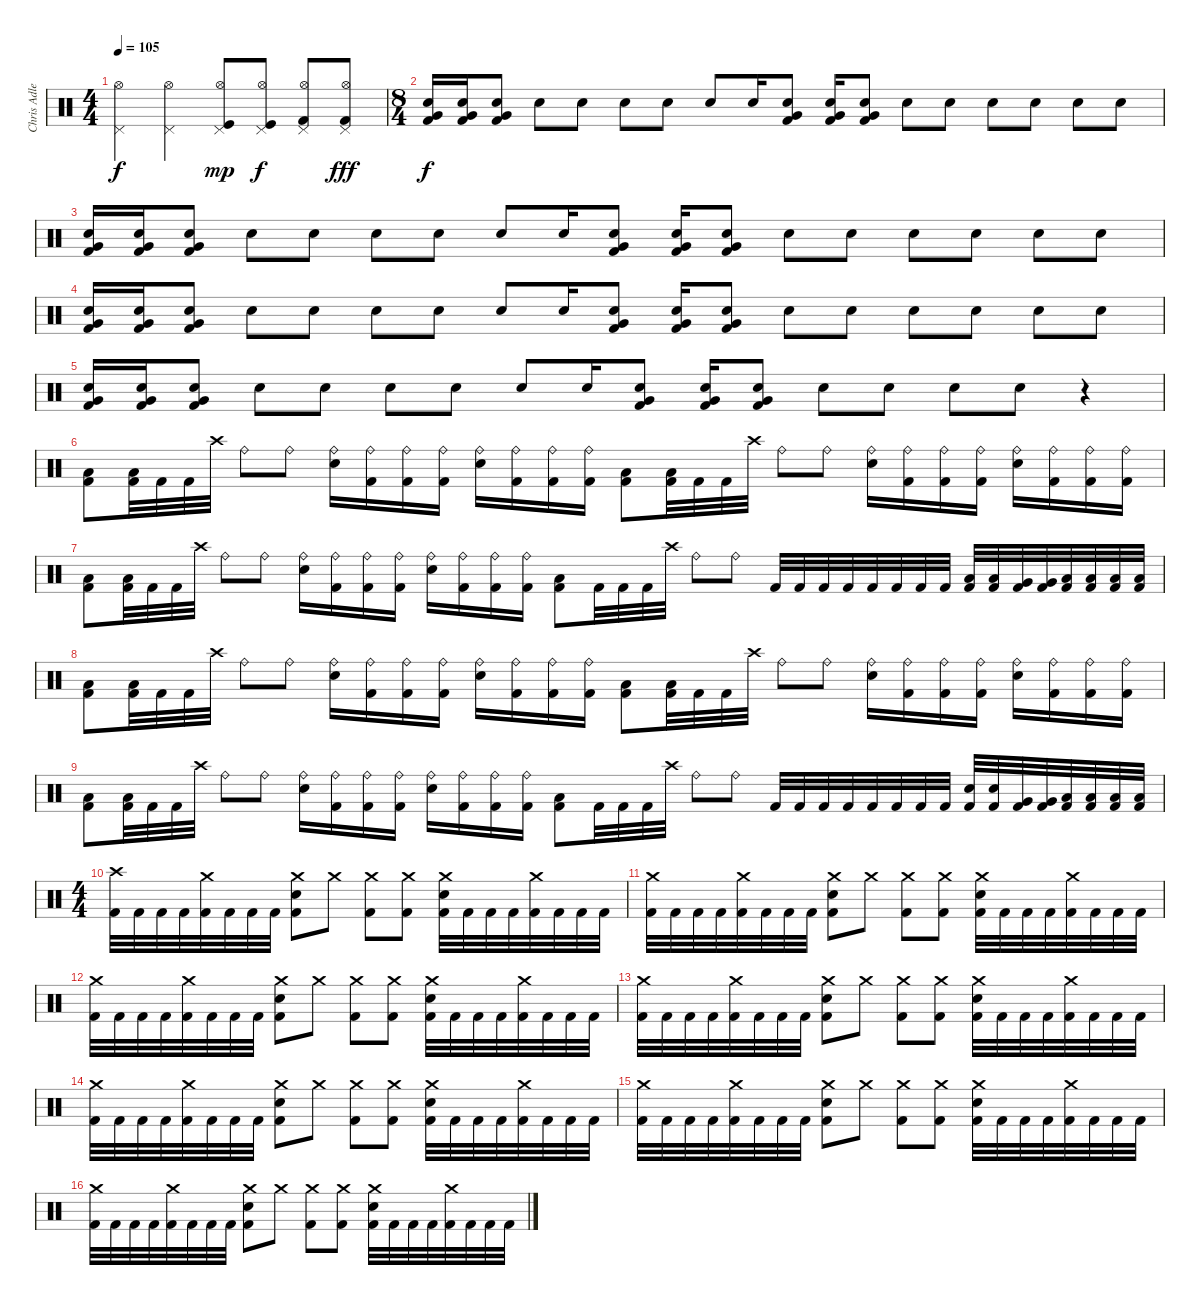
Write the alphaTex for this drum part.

\track ("Chris Adler" "Chris Adle") {instrument percussion}
\staff {score}
\articulation defaults
\ts (4 4)
\tempo 105
\clef neutral
\ks c
("Pedal Hi-Hat (hit)" "Hi-Hat (open)").4{dy f} ("Pedal Hi-Hat (hit)" "Hi-Hat (open)").4 ("Pedal Hi-Hat (hit)" "Hi-Hat (open)" "Kick (hit)").8{dy mp} ("Pedal Hi-Hat (hit)" "Hi-Hat (open)" "Kick (hit)").8{dy f} ("Pedal Hi-Hat (hit)" "Hi-Hat (open)" "Kick (hit) 2").8 ("Pedal Hi-Hat (hit)" "Hi-Hat (open)" "Kick (hit) 2").8{dy fff} |
\ts (8 4)
("Very Low Tom (hit)" "Electric Snare (hit)" "Kick (hit) 2").16{dy f} ("Very Low Tom (hit)" "Electric Snare (hit)" "Kick (hit) 2").16 ("Very Low Tom (hit)" "Electric Snare (hit)" "Kick (hit) 2").8 "Electric Snare (hit)".8 "Electric Snare (hit)".8 "Electric Snare (hit)".8 "Electric Snare (hit)".8 "Electric Snare (hit)".8 "Electric Snare (hit)".16 ("Very Low Tom (hit)" "Electric Snare (hit)" "Kick (hit) 2").8 ("Very Low Tom (hit)" "Electric Snare (hit)" "Kick (hit) 2").16 ("Very Low Tom (hit)" "Electric Snare (hit)" "Kick (hit) 2").8 "Electric Snare (hit)".8 "Electric Snare (hit)".8 "Electric Snare (hit)".8 "Electric Snare (hit)".8 "Electric Snare (hit)".8 "Electric Snare (hit)".8 |
("Very Low Tom (hit)" "Electric Snare (hit)" "Kick (hit) 2").16 ("Very Low Tom (hit)" "Electric Snare (hit)" "Kick (hit) 2").16 ("Very Low Tom (hit)" "Electric Snare (hit)" "Kick (hit) 2").8 "Electric Snare (hit)".8 "Electric Snare (hit)".8 "Electric Snare (hit)".8 "Electric Snare (hit)".8 "Electric Snare (hit)".8 "Electric Snare (hit)".16 ("Very Low Tom (hit)" "Electric Snare (hit)" "Kick (hit) 2").8 ("Very Low Tom (hit)" "Electric Snare (hit)" "Kick (hit) 2").16 ("Very Low Tom (hit)" "Electric Snare (hit)" "Kick (hit) 2").8 "Electric Snare (hit)".8 "Electric Snare (hit)".8 "Electric Snare (hit)".8 "Electric Snare (hit)".8 "Electric Snare (hit)".8 "Electric Snare (hit)".8 |
("Very Low Tom (hit)" "Electric Snare (hit)" "Kick (hit) 2").16 ("Very Low Tom (hit)" "Electric Snare (hit)" "Kick (hit) 2").16 ("Very Low Tom (hit)" "Electric Snare (hit)" "Kick (hit) 2").8 "Electric Snare (hit)".8 "Electric Snare (hit)".8 "Electric Snare (hit)".8 "Electric Snare (hit)".8 "Electric Snare (hit)".8 "Electric Snare (hit)".16 ("Very Low Tom (hit)" "Electric Snare (hit)" "Kick (hit) 2").8 ("Very Low Tom (hit)" "Electric Snare (hit)" "Kick (hit) 2").16 ("Very Low Tom (hit)" "Electric Snare (hit)" "Kick (hit) 2").8 "Electric Snare (hit)".8 "Electric Snare (hit)".8 "Electric Snare (hit)".8 "Electric Snare (hit)".8 "Electric Snare (hit)".8 "Electric Snare (hit)".8 |
("Very Low Tom (hit)" "Electric Snare (hit)" "Kick (hit) 2").16 ("Very Low Tom (hit)" "Electric Snare (hit)" "Kick (hit) 2").16 ("Very Low Tom (hit)" "Electric Snare (hit)" "Kick (hit) 2").8 "Electric Snare (hit)".8 "Electric Snare (hit)".8 "Electric Snare (hit)".8 "Electric Snare (hit)".8 "Electric Snare (hit)".8 "Electric Snare (hit)".16 ("Very Low Tom (hit)" "Electric Snare (hit)" "Kick (hit) 2").8 ("Very Low Tom (hit)" "Electric Snare (hit)" "Kick (hit) 2").16 ("Very Low Tom (hit)" "Electric Snare (hit)" "Kick (hit) 2").8 "Electric Snare (hit)".8 "Electric Snare (hit)".8 "Electric Snare (hit)".8 "Electric Snare (hit)".8 r.4 |
("Low Tom (hit)" "Kick (hit) 2").8 ("Low Tom (hit)" "Kick (hit) 2").32 "Kick (hit) 2".32 "Kick (hit) 2".32 "Crash high (hit)".32 "Ride (bell)".8 "Ride (bell)".8 ("Ride (bell)" "Electric Snare (hit)").16 ("Ride (bell)" "Kick (hit) 2").16 ("Ride (bell)" "Kick (hit) 2").16 ("Ride (bell)" "Kick (hit) 2").16 ("Ride (bell)" "Electric Snare (hit)").16 ("Ride (bell)" "Kick (hit) 2").16 ("Ride (bell)" "Kick (hit) 2").16 ("Ride (bell)" "Kick (hit) 2").16 ("Low Tom (hit)" "Kick (hit) 2").8 ("Low Tom (hit)" "Kick (hit) 2").32 "Kick (hit) 2".32 "Kick (hit) 2".32 "Crash high (hit)".32 "Ride (bell)".8 "Ride (bell)".8 ("Ride (bell)" "Electric Snare (hit)").16 ("Ride (bell)" "Kick (hit) 2").16 ("Ride (bell)" "Kick (hit) 2").16 ("Ride (bell)" "Kick (hit) 2").16 ("Ride (bell)" "Electric Snare (hit)").16 ("Ride (bell)" "Kick (hit) 2").16 ("Ride (bell)" "Kick (hit) 2").16 ("Ride (bell)" "Kick (hit) 2").16 |
("Low Tom (hit)" "Kick (hit) 2").8 ("Low Tom (hit)" "Kick (hit) 2").32 "Kick (hit) 2".32 "Kick (hit) 2".32 "Crash high (hit)".32 "Ride (bell)".8 "Ride (bell)".8 ("Ride (bell)" "Electric Snare (hit)").16 ("Ride (bell)" "Kick (hit) 2").16 ("Ride (bell)" "Kick (hit) 2").16 ("Ride (bell)" "Kick (hit) 2").16 ("Ride (bell)" "Electric Snare (hit)").16 ("Ride (bell)" "Kick (hit) 2").16 ("Ride (bell)" "Kick (hit) 2").16 ("Ride (bell)" "Kick (hit) 2").16 ("Low Tom (hit)" "Kick (hit) 2").8 "Kick (hit) 2".32 "Kick (hit) 2".32 "Kick (hit) 2".32 "Crash high (hit)".32 "Ride (bell)".8 "Ride (bell)".8 "Kick (hit) 2".32 "Kick (hit) 2".32 "Kick (hit) 2".32 "Kick (hit) 2".32 "Kick (hit) 2".32 "Kick (hit) 2".32 "Kick (hit) 2".32 "Kick (hit) 2".32 ("Low Tom (hit)" "Kick (hit) 2").32 ("Low Tom (hit)" "Kick (hit) 2").32 ("Very Low Tom (hit)" "Kick (hit) 2").32 ("Very Low Tom (hit)" "Kick (hit) 2").32 ("Low Tom (hit)" "Kick (hit) 2").32 ("Low Tom (hit)" "Kick (hit) 2").32 ("Low Floor Tom (hit)" "Kick (hit) 2").32 ("Low Floor Tom (hit)" "Kick (hit) 2").32 |
("Low Tom (hit)" "Kick (hit) 2").8 ("Low Tom (hit)" "Kick (hit) 2").32 "Kick (hit) 2".32 "Kick (hit) 2".32 "Crash high (hit)".32 "Ride (bell)".8 "Ride (bell)".8 ("Ride (bell)" "Electric Snare (hit)").16 ("Ride (bell)" "Kick (hit) 2").16 ("Ride (bell)" "Kick (hit) 2").16 ("Ride (bell)" "Kick (hit) 2").16 ("Ride (bell)" "Electric Snare (hit)").16 ("Ride (bell)" "Kick (hit) 2").16 ("Ride (bell)" "Kick (hit) 2").16 ("Ride (bell)" "Kick (hit) 2").16 ("Low Tom (hit)" "Kick (hit) 2").8 ("Low Tom (hit)" "Kick (hit) 2").32 "Kick (hit) 2".32 "Kick (hit) 2".32 "Crash high (hit)".32 "Ride (bell)".8 "Ride (bell)".8 ("Ride (bell)" "Electric Snare (hit)").16 ("Ride (bell)" "Kick (hit) 2").16 ("Ride (bell)" "Kick (hit) 2").16 ("Ride (bell)" "Kick (hit) 2").16 ("Ride (bell)" "Electric Snare (hit)").16 ("Ride (bell)" "Kick (hit) 2").16 ("Ride (bell)" "Kick (hit) 2").16 ("Ride (bell)" "Kick (hit) 2").16 |
("Low Tom (hit)" "Kick (hit) 2").8 ("Low Tom (hit)" "Kick (hit) 2").32 "Kick (hit) 2".32 "Kick (hit) 2".32 "Crash high (hit)".32 "Ride (bell)".8 "Ride (bell)".8 ("Ride (bell)" "Electric Snare (hit)").16 ("Ride (bell)" "Kick (hit) 2").16 ("Ride (bell)" "Kick (hit) 2").16 ("Ride (bell)" "Kick (hit) 2").16 ("Ride (bell)" "Electric Snare (hit)").16 ("Ride (bell)" "Kick (hit) 2").16 ("Ride (bell)" "Kick (hit) 2").16 ("Ride (bell)" "Kick (hit) 2").16 ("Low Tom (hit)" "Kick (hit) 2").8 "Kick (hit) 2".32 "Kick (hit) 2".32 "Kick (hit) 2".32 "Crash high (hit)".32 "Ride (bell)".8 "Ride (bell)".8 "Kick (hit) 2".32 "Kick (hit) 2".32 "Kick (hit) 2".32 "Kick (hit) 2".32 "Kick (hit) 2".32 "Kick (hit) 2".32 "Kick (hit) 2".32 "Kick (hit) 2".32 ("Electric Snare (hit)" "Kick (hit) 2").32 ("Electric Snare (hit)" "Kick (hit) 2").32 ("Very Low Tom (hit)" "Kick (hit) 2").32 ("Very Low Tom (hit)" "Kick (hit) 2").32 ("Low Floor Tom (hit)" "Kick (hit) 2").32 ("Low Floor Tom (hit)" "Kick (hit) 2").32 ("Low Tom (hit)" "Kick (hit) 2").32 ("Low Tom (hit)" "Kick (hit) 2").32 |
\ts (4 4)
("Crash high (hit)" "Kick (hit) 2").32 "Kick (hit) 2".32 "Kick (hit) 2".32 "Kick (hit) 2".32 ("Crash medium (hit)" "Kick (hit) 2").32 "Kick (hit) 2".32 "Kick (hit) 2".32 "Kick (hit) 2".32 ("Crash medium (hit)" "Electric Snare (hit)" "Kick (hit) 2").8 "Crash medium (hit)".8 ("Crash medium (hit)" "Kick (hit) 2").8 ("Crash medium (hit)" "Kick (hit) 2").8 ("Crash medium (hit)" "Electric Snare (hit)" "Kick (hit) 2").32 "Kick (hit) 2".32 "Kick (hit) 2".32 "Kick (hit) 2".32 ("Crash medium (hit)" "Kick (hit) 2").32 "Kick (hit) 2".32 "Kick (hit) 2".32 "Kick (hit) 2".32 |
("Crash medium (hit)" "Kick (hit) 2").32 "Kick (hit) 2".32 "Kick (hit) 2".32 "Kick (hit) 2".32 ("Crash medium (hit)" "Kick (hit) 2").32 "Kick (hit) 2".32 "Kick (hit) 2".32 "Kick (hit) 2".32 ("Crash medium (hit)" "Electric Snare (hit)" "Kick (hit) 2").8 "Crash medium (hit)".8 ("Crash medium (hit)" "Kick (hit) 2").8 ("Crash medium (hit)" "Kick (hit) 2").8 ("Crash medium (hit)" "Electric Snare (hit)" "Kick (hit) 2").32 "Kick (hit) 2".32 "Kick (hit) 2".32 "Kick (hit) 2".32 ("Crash medium (hit)" "Kick (hit) 2").32 "Kick (hit) 2".32 "Kick (hit) 2".32 "Kick (hit) 2".32 |
("Crash medium (hit)" "Kick (hit) 2").32 "Kick (hit) 2".32 "Kick (hit) 2".32 "Kick (hit) 2".32 ("Crash medium (hit)" "Kick (hit) 2").32 "Kick (hit) 2".32 "Kick (hit) 2".32 "Kick (hit) 2".32 ("Crash medium (hit)" "Electric Snare (hit)" "Kick (hit) 2").8 "Crash medium (hit)".8 ("Crash medium (hit)" "Kick (hit) 2").8 ("Crash medium (hit)" "Kick (hit) 2").8 ("Crash medium (hit)" "Electric Snare (hit)" "Kick (hit) 2").32 "Kick (hit) 2".32 "Kick (hit) 2".32 "Kick (hit) 2".32 ("Crash medium (hit)" "Kick (hit) 2").32 "Kick (hit) 2".32 "Kick (hit) 2".32 "Kick (hit) 2".32 |
("Crash medium (hit)" "Kick (hit) 2").32 "Kick (hit) 2".32 "Kick (hit) 2".32 "Kick (hit) 2".32 ("Crash medium (hit)" "Kick (hit) 2").32 "Kick (hit) 2".32 "Kick (hit) 2".32 "Kick (hit) 2".32 ("Crash medium (hit)" "Electric Snare (hit)" "Kick (hit) 2").8 "Crash medium (hit)".8 ("Crash medium (hit)" "Kick (hit) 2").8 ("Crash medium (hit)" "Kick (hit) 2").8 ("Crash medium (hit)" "Electric Snare (hit)" "Kick (hit) 2").32 "Kick (hit) 2".32 "Kick (hit) 2".32 "Kick (hit) 2".32 ("Crash medium (hit)" "Kick (hit) 2").32 "Kick (hit) 2".32 "Kick (hit) 2".32 "Kick (hit) 2".32 |
("Crash medium (hit)" "Kick (hit) 2").32 "Kick (hit) 2".32 "Kick (hit) 2".32 "Kick (hit) 2".32 ("Crash medium (hit)" "Kick (hit) 2").32 "Kick (hit) 2".32 "Kick (hit) 2".32 "Kick (hit) 2".32 ("Crash medium (hit)" "Electric Snare (hit)" "Kick (hit) 2").8 "Crash medium (hit)".8 ("Crash medium (hit)" "Kick (hit) 2").8 ("Crash medium (hit)" "Kick (hit) 2").8 ("Crash medium (hit)" "Electric Snare (hit)" "Kick (hit) 2").32 "Kick (hit) 2".32 "Kick (hit) 2".32 "Kick (hit) 2".32 ("Crash medium (hit)" "Kick (hit) 2").32 "Kick (hit) 2".32 "Kick (hit) 2".32 "Kick (hit) 2".32 |
("Crash medium (hit)" "Kick (hit) 2").32 "Kick (hit) 2".32 "Kick (hit) 2".32 "Kick (hit) 2".32 ("Crash medium (hit)" "Kick (hit) 2").32 "Kick (hit) 2".32 "Kick (hit) 2".32 "Kick (hit) 2".32 ("Crash medium (hit)" "Electric Snare (hit)" "Kick (hit) 2").8 "Crash medium (hit)".8 ("Crash medium (hit)" "Kick (hit) 2").8 ("Crash medium (hit)" "Kick (hit) 2").8 ("Crash medium (hit)" "Electric Snare (hit)" "Kick (hit) 2").32 "Kick (hit) 2".32 "Kick (hit) 2".32 "Kick (hit) 2".32 ("Crash medium (hit)" "Kick (hit) 2").32 "Kick (hit) 2".32 "Kick (hit) 2".32 "Kick (hit) 2".32 |
("Crash medium (hit)" "Kick (hit) 2").32 "Kick (hit) 2".32 "Kick (hit) 2".32 "Kick (hit) 2".32 ("Crash medium (hit)" "Kick (hit) 2").32 "Kick (hit) 2".32 "Kick (hit) 2".32 "Kick (hit) 2".32 ("Crash medium (hit)" "Electric Snare (hit)" "Kick (hit) 2").8 "Crash medium (hit)".8 ("Crash medium (hit)" "Kick (hit) 2").8 ("Crash medium (hit)" "Kick (hit) 2").8 ("Crash medium (hit)" "Electric Snare (hit)" "Kick (hit) 2").32 "Kick (hit) 2".32 "Kick (hit) 2".32 "Kick (hit) 2".32 ("Crash medium (hit)" "Kick (hit) 2").32 "Kick (hit) 2".32 "Kick (hit) 2".32 "Kick (hit) 2".32
